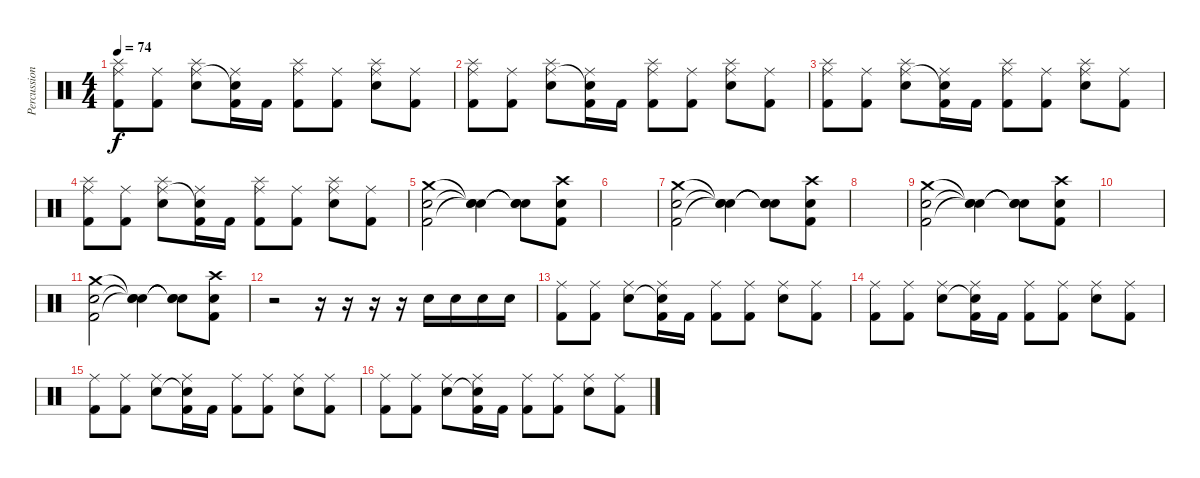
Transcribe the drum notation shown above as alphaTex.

\track ("Percussion" "Percussion") {instrument percussion}
\staff {score}
\articulation defaults
\ts (4 4)
\tempo 74
\clef neutral
\ks c
("Splash (hit)" "Ride (middle)" "Kick (hit) 2").8{dy f} ("Ride (middle)" "Kick (hit) 2").8 ("Splash (hit)" "Ride (middle)" "Electric Snare (hit)").8 ("Ride (middle)" "Snare (hit)"{t} "Kick (hit) 2").16 "Kick (hit) 2".16 ("Splash (hit)" "Ride (middle)" "Kick (hit) 2").8 ("Ride (middle)" "Kick (hit) 2").8 ("Splash (hit)" "Ride (middle)" "Electric Snare (hit)").8 ("Ride (middle)" "Kick (hit) 2").8 |
("Splash (hit)" "Ride (middle)" "Kick (hit) 2").8 ("Ride (middle)" "Kick (hit) 2").8 ("Splash (hit)" "Ride (middle)" "Electric Snare (hit)").8 ("Ride (middle)" "Snare (hit)"{t} "Kick (hit) 2").16 "Kick (hit) 2".16 ("Splash (hit)" "Ride (middle)" "Kick (hit) 2").8 ("Ride (middle)" "Kick (hit) 2").8 ("Splash (hit)" "Ride (middle)" "Electric Snare (hit)").8 ("Ride (middle)" "Kick (hit) 2").8 |
("Splash (hit)" "Ride (middle)" "Kick (hit) 2").8 ("Ride (middle)" "Kick (hit) 2").8 ("Splash (hit)" "Ride (middle)" "Electric Snare (hit)").8 ("Ride (middle)" "Snare (hit)"{t} "Kick (hit) 2").16 "Kick (hit) 2".16 ("Splash (hit)" "Ride (middle)" "Kick (hit) 2").8 ("Ride (middle)" "Kick (hit) 2").8 ("Splash (hit)" "Ride (middle)" "Electric Snare (hit)").8 ("Ride (middle)" "Kick (hit) 2").8 |
("Splash (hit)" "Ride (middle)" "Kick (hit) 2").8 ("Ride (middle)" "Kick (hit) 2").8 ("Splash (hit)" "Ride (middle)" "Electric Snare (hit)").8 ("Ride (middle)" "Snare (hit)"{t} "Kick (hit) 2").16 "Kick (hit) 2".16 ("Splash (hit)" "Ride (middle)" "Kick (hit) 2").8 ("Ride (middle)" "Kick (hit) 2").8 ("Splash (hit)" "Ride (middle)" "Electric Snare (hit)").8 ("Ride (middle)" "Kick (hit) 2").8 |
("Crash medium (hit)" "Electric Snare (hit)" "Kick (hit) 2").2 ("Snare (hit)"{t} "Snare (hit)"{t} "Snare (hit)"{t}).4 ("Snare (hit)"{t} "Snare (hit)"{t} "Snare (hit)"{t}).8 ("Crash high (hit)" "Electric Snare (hit)" "Kick (hit) 2").8 |
|
("Crash medium (hit)" "Electric Snare (hit)" "Kick (hit) 2").2 ("Snare (hit)"{t} "Snare (hit)"{t} "Snare (hit)"{t}).4 ("Snare (hit)"{t} "Snare (hit)"{t} "Snare (hit)"{t}).8 ("Crash high (hit)" "Electric Snare (hit)" "Kick (hit) 2").8 |
|
("Crash medium (hit)" "Electric Snare (hit)" "Kick (hit) 2").2 ("Snare (hit)"{t} "Snare (hit)"{t} "Snare (hit)"{t}).4 ("Snare (hit)"{t} "Snare (hit)"{t} "Snare (hit)"{t}).8 ("Crash high (hit)" "Electric Snare (hit)" "Kick (hit) 2").8 |
|
("Crash medium (hit)" "Electric Snare (hit)" "Kick (hit) 2").2 ("Snare (hit)"{t} "Snare (hit)"{t} "Snare (hit)"{t}).4 ("Snare (hit)"{t} "Snare (hit)"{t} "Snare (hit)"{t}).8 ("Crash high (hit)" "Electric Snare (hit)" "Kick (hit) 2").8 |
r.2 r.16 r.16 r.16 r.16 "Electric Snare (hit)".16 "Electric Snare (hit)".16 "Electric Snare (hit)".16 "Electric Snare (hit)".16 |
("Ride (middle)" "Kick (hit) 2").8 ("Ride (middle)" "Kick (hit) 2").8 ("Ride (middle)" "Electric Snare (hit)").8 ("Ride (middle)" "Snare (hit)"{t} "Kick (hit) 2").16 "Kick (hit) 2".16 ("Ride (middle)" "Kick (hit) 2").8 ("Ride (middle)" "Kick (hit) 2").8 ("Ride (middle)" "Electric Snare (hit)").8 ("Ride (middle)" "Kick (hit) 2").8 |
("Ride (middle)" "Kick (hit) 2").8 ("Ride (middle)" "Kick (hit) 2").8 ("Ride (middle)" "Electric Snare (hit)").8 ("Ride (middle)" "Snare (hit)"{t} "Kick (hit) 2").16 "Kick (hit) 2".16 ("Ride (middle)" "Kick (hit) 2").8 ("Ride (middle)" "Kick (hit) 2").8 ("Ride (middle)" "Electric Snare (hit)").8 ("Ride (middle)" "Kick (hit) 2").8 |
("Ride (middle)" "Kick (hit) 2").8 ("Ride (middle)" "Kick (hit) 2").8 ("Ride (middle)" "Electric Snare (hit)").8 ("Ride (middle)" "Snare (hit)"{t} "Kick (hit) 2").16 "Kick (hit) 2".16 ("Ride (middle)" "Kick (hit) 2").8 ("Ride (middle)" "Kick (hit) 2").8 ("Ride (middle)" "Electric Snare (hit)").8 ("Ride (middle)" "Kick (hit) 2").8 |
("Ride (middle)" "Kick (hit) 2").8 ("Ride (middle)" "Kick (hit) 2").8 ("Ride (middle)" "Electric Snare (hit)").8 ("Ride (middle)" "Snare (hit)"{t} "Kick (hit) 2").16 "Kick (hit) 2".16 ("Ride (middle)" "Kick (hit) 2").8 ("Ride (middle)" "Kick (hit) 2").8 ("Ride (middle)" "Electric Snare (hit)").8 ("Ride (middle)" "Kick (hit) 2").8
